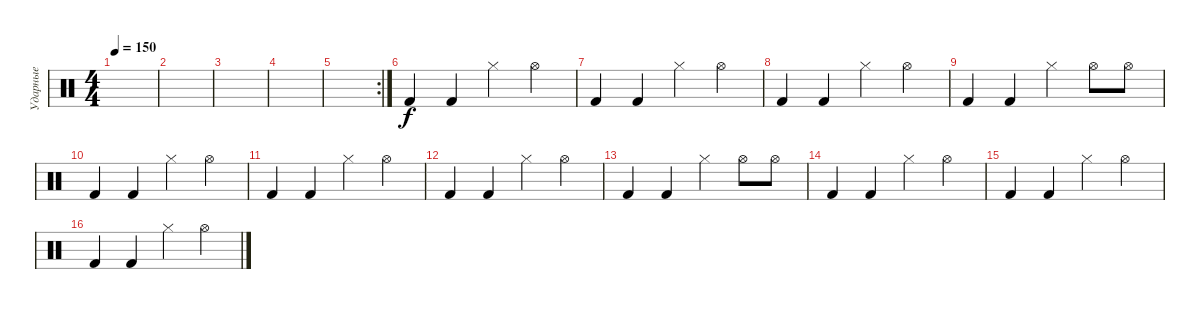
\track ("Ударные" "Ударные") {instrument percussion}
\staff {score}
\articulation defaults
\ts (4 4)
\tempo 150
\clef neutral
\ks c
|
|
|
|
\rc 2
|
"Kick (hit) 2".4 "Kick (hit) 2".4 "Hi-Hat (closed)".4 "Hi-Hat (open)".4 |
"Kick (hit) 2".4 "Kick (hit) 2".4 "Hi-Hat (closed)".4 "Hi-Hat (open)".4 |
"Kick (hit) 2".4 "Kick (hit) 2".4 "Hi-Hat (closed)".4 "Hi-Hat (open)".4 |
"Kick (hit) 2".4 "Kick (hit) 2".4 "Hi-Hat (closed)".4 "Hi-Hat (open)".8 "Hi-Hat (open)".8 |
"Kick (hit) 2".4 "Kick (hit) 2".4 "Hi-Hat (closed)".4 "Hi-Hat (open)".4 |
"Kick (hit) 2".4 "Kick (hit) 2".4 "Hi-Hat (closed)".4 "Hi-Hat (open)".4 |
"Kick (hit) 2".4 "Kick (hit) 2".4 "Hi-Hat (closed)".4 "Hi-Hat (open)".4 |
"Kick (hit) 2".4 "Kick (hit) 2".4 "Hi-Hat (closed)".4 "Hi-Hat (open)".8 "Hi-Hat (open)".8 |
"Kick (hit) 2".4 "Kick (hit) 2".4 "Hi-Hat (closed)".4 "Hi-Hat (open)".4 |
"Kick (hit) 2".4 "Kick (hit) 2".4 "Hi-Hat (closed)".4 "Hi-Hat (open)".4 |
"Kick (hit) 2".4 "Kick (hit) 2".4 "Hi-Hat (closed)".4 "Hi-Hat (open)".4
